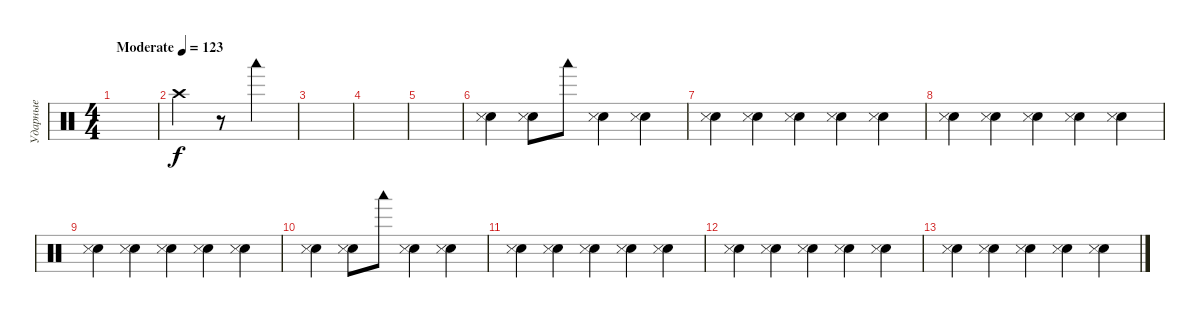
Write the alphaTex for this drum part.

\track ("Ударные" "Ударные") {solo instrument percussion}
\staff {score}
\articulation defaults
\ts (4 4)
\tempo (123 "Moderate")
\clef neutral
\ks c
|
"Crash high (hit)".4 r.8 "Woodblock low (hit)".4 |
|
|
|
("Hand Clap (hit)" "Snare (side stick) 3").4 ("Hand Clap (hit)" "Snare (side stick) 3").8 "Woodblock low (hit)".8 ("Hand Clap (hit)" "Snare (side stick) 3").4 ("Hand Clap (hit)" "Snare (side stick) 3").4 |
("Hand Clap (hit)" "Snare (side stick) 3").4 ("Hand Clap (hit)" "Snare (side stick) 3").4 ("Hand Clap (hit)" "Snare (side stick) 3").4 ("Hand Clap (hit)" "Snare (side stick) 3").4 ("Hand Clap (hit)" "Snare (side stick) 3").4 |
("Hand Clap (hit)" "Snare (side stick) 3").4 ("Hand Clap (hit)" "Snare (side stick) 3").4 ("Hand Clap (hit)" "Snare (side stick) 3").4 ("Hand Clap (hit)" "Snare (side stick) 3").4 ("Hand Clap (hit)" "Snare (side stick) 3").4 |
("Hand Clap (hit)" "Snare (side stick) 3").4 ("Hand Clap (hit)" "Snare (side stick) 3").4 ("Hand Clap (hit)" "Snare (side stick) 3").4 ("Hand Clap (hit)" "Snare (side stick) 3").4 ("Hand Clap (hit)" "Snare (side stick) 3").4 |
("Hand Clap (hit)" "Snare (side stick) 3").4 ("Hand Clap (hit)" "Snare (side stick) 3").8 "Woodblock low (hit)".8 ("Hand Clap (hit)" "Snare (side stick) 3").4 ("Hand Clap (hit)" "Snare (side stick) 3").4 |
("Hand Clap (hit)" "Snare (side stick) 3").4 ("Hand Clap (hit)" "Snare (side stick) 3").4 ("Hand Clap (hit)" "Snare (side stick) 3").4 ("Hand Clap (hit)" "Snare (side stick) 3").4 ("Hand Clap (hit)" "Snare (side stick) 3").4 |
("Hand Clap (hit)" "Snare (side stick) 3").4 ("Hand Clap (hit)" "Snare (side stick) 3").4 ("Hand Clap (hit)" "Snare (side stick) 3").4 ("Hand Clap (hit)" "Snare (side stick) 3").4 ("Hand Clap (hit)" "Snare (side stick) 3").4 |
("Hand Clap (hit)" "Snare (side stick) 3").4 ("Hand Clap (hit)" "Snare (side stick) 3").4 ("Hand Clap (hit)" "Snare (side stick) 3").4 ("Hand Clap (hit)" "Snare (side stick) 3").4 ("Hand Clap (hit)" "Snare (side stick) 3").4
